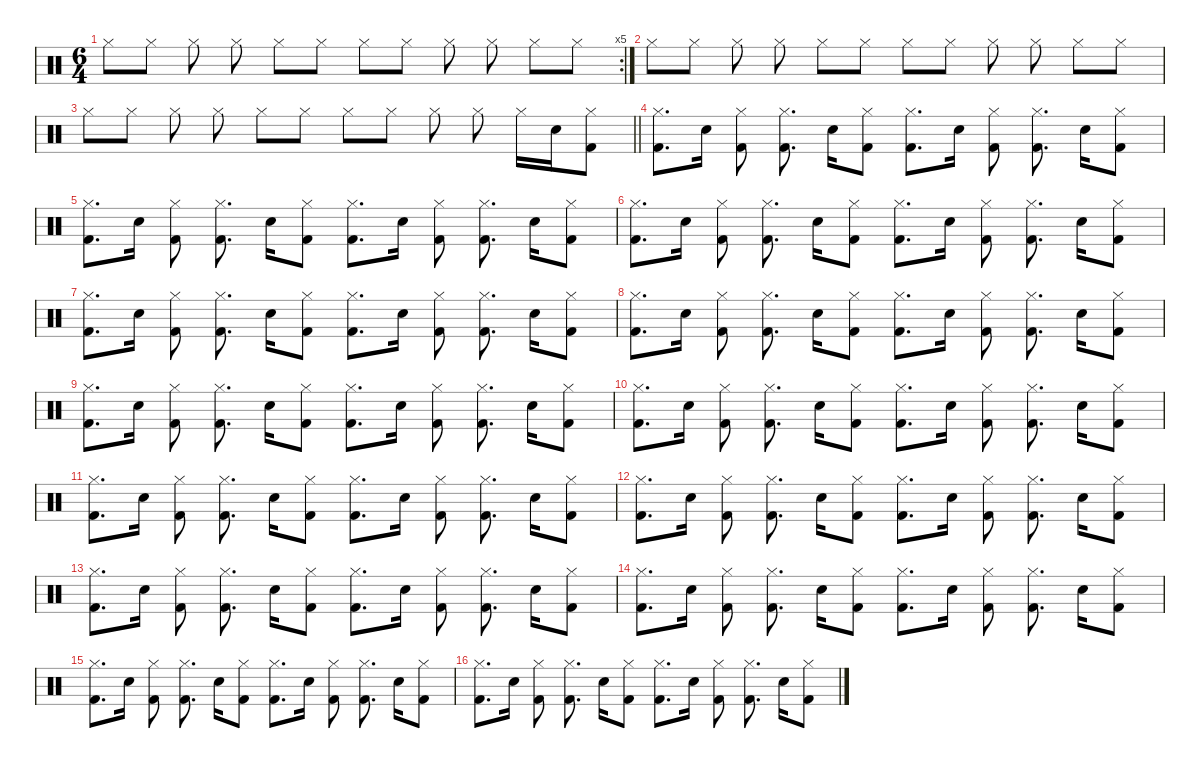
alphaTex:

\defaultSystemsLayout 4
\hideDynamics
\bracketExtendMode nobrackets
\singleTrackTrackNamePolicy hidden
\multiTrackTrackNamePolicy hidden
\firstSystemTrackNameMode fullname
\firstSystemTrackNameOrientation horizontal
\otherSystemsTrackNameOrientation horizontal
\track ("Percussion" "drm.") {instrument percussion}
\staff {score}
\articulation defaults
\rc 5
\ts (6 4)
\tempo (97 hide)
\clef neutral
\ks c "Hi-Hat (closed)".8{dy mf beam Down} "Hi-Hat (closed)".8{beam Down} "Hi-Hat (closed)".8{beam Down beam split} "Hi-Hat (closed)".8{beam Down} "Hi-Hat (closed)".8{beam Down} "Hi-Hat (closed)".8{beam Down} "Hi-Hat (closed)".8{beam Down} "Hi-Hat (closed)".8{beam Down} "Hi-Hat (closed)".8{beam Down beam split} "Hi-Hat (closed)".8{beam Down} "Hi-Hat (closed)".8{beam Down} "Hi-Hat (closed)".8{beam Down}
|
\tempo (98 hide)
"Hi-Hat (closed)".8{beam Down} "Hi-Hat (closed)".8{beam Down} "Hi-Hat (closed)".8{beam Down beam split} "Hi-Hat (closed)".8{beam Down} "Hi-Hat (closed)".8{beam Down} "Hi-Hat (closed)".8{beam Down} "Hi-Hat (closed)".8{beam Down} "Hi-Hat (closed)".8{beam Down} "Hi-Hat (closed)".8{beam Down beam split} "Hi-Hat (closed)".8{beam Down} "Hi-Hat (closed)".8{beam Down} "Hi-Hat (closed)".8{beam Down} |
\tempo (97 hide)
\barLineRight lightlight "Hi-Hat (closed)".8{beam Down} "Hi-Hat (closed)".8{beam Down} "Hi-Hat (closed)".8{beam Down beam split} "Hi-Hat (closed)".8{beam Down} "Hi-Hat (closed)".8{beam Down} "Hi-Hat (closed)".8{beam Down} "Hi-Hat (closed)".8{beam Down} "Hi-Hat (closed)".8{beam Down} "Hi-Hat (closed)".8{beam Down beam split} "Hi-Hat (closed)".8{beam Down} "Hi-Hat (closed)".16{beam Down} "Snare (hit) 2".16{dy ff beam Down}
("Hi-Hat (closed)" "Kick (hit) 2").8{dy mf beam Down} |
\tempo (98 hide)
("Hi-Hat (closed)" "Kick (hit) 2").8{d beam Down} "Snare (hit) 2".16{dy f beam Down} ("Hi-Hat (closed)" "Kick (hit) 2").8{dy mf beam Down beam split} ("Hi-Hat (closed)" "Kick (hit) 2").8{d beam Down} "Snare (hit) 2".16{dy f beam Down} ("Hi-Hat (closed)" "Kick (hit) 2").8{dy mf beam Down} ("Hi-Hat (closed)" "Kick (hit) 2").8{d beam Down} "Snare (hit) 2".16{dy f beam Down} ("Hi-Hat (closed)" "Kick (hit) 2").8{dy mf beam Down beam split} ("Hi-Hat (closed)" "Kick (hit) 2").8{d beam Down} "Snare (hit) 2".16{dy f beam Down} ("Hi-Hat (closed)" "Kick (hit) 2").8{dy mf beam Down} |
("Hi-Hat (closed)" "Kick (hit) 2").8{d beam Down} "Snare (hit) 2".16{dy f beam Down} ("Hi-Hat (closed)" "Kick (hit) 2").8{dy mf beam Down beam split} ("Hi-Hat (closed)" "Kick (hit) 2").8{d beam Down} "Snare (hit) 2".16{dy f beam Down} ("Hi-Hat (closed)" "Kick (hit) 2").8{dy mf beam Down} ("Hi-Hat (closed)" "Kick (hit) 2").8{d beam Down} "Snare (hit) 2".16{dy f beam Down} ("Hi-Hat (closed)" "Kick (hit) 2").8{dy mf beam Down beam split} ("Hi-Hat (closed)" "Kick (hit) 2").8{d beam Down} "Snare (hit) 2".16{dy f beam Down} ("Hi-Hat (closed)" "Kick (hit) 2").8{dy mf beam Down} |
("Hi-Hat (closed)" "Kick (hit) 2").8{d beam Down} "Snare (hit) 2".16{dy f beam Down} ("Hi-Hat (closed)" "Kick (hit) 2").8{dy mf beam Down beam split} ("Hi-Hat (closed)" "Kick (hit) 2").8{d beam Down} "Snare (hit) 2".16{dy f beam Down} ("Hi-Hat (closed)" "Kick (hit) 2").8{dy mf beam Down} ("Hi-Hat (closed)" "Kick (hit) 2").8{d beam Down} "Snare (hit) 2".16{dy f beam Down} ("Hi-Hat (closed)" "Kick (hit) 2").8{dy mf beam Down beam split} ("Hi-Hat (closed)" "Kick (hit) 2").8{d beam Down} "Snare (hit) 2".16{dy f beam Down} ("Hi-Hat (closed)" "Kick (hit) 2").8{dy mf beam Down} |
("Hi-Hat (closed)" "Kick (hit) 2").8{d beam Down} "Snare (hit) 2".16{dy f beam Down} ("Hi-Hat (closed)" "Kick (hit) 2").8{dy mf beam Down beam split} ("Hi-Hat (closed)" "Kick (hit) 2").8{d beam Down} "Snare (hit) 2".16{dy f beam Down} ("Hi-Hat (closed)" "Kick (hit) 2").8{dy mf beam Down} ("Hi-Hat (closed)" "Kick (hit) 2").8{d beam Down} "Snare (hit) 2".16{dy f beam Down} ("Hi-Hat (closed)" "Kick (hit) 2").8{dy mf beam Down beam split} ("Hi-Hat (closed)" "Kick (hit) 2").8{d beam Down} "Snare (hit) 2".16{dy f beam Down} ("Hi-Hat (closed)" "Kick (hit) 2").8{dy mf beam Down} |
\tempo (97 hide)
("Hi-Hat (closed)" "Kick (hit) 2").8{d beam Down} "Snare (hit) 2".16{dy f beam Down} ("Hi-Hat (closed)" "Kick (hit) 2").8{dy mf beam Down beam split} ("Hi-Hat (closed)" "Kick (hit) 2").8{d beam Down} "Snare (hit) 2".16{dy f beam Down} ("Hi-Hat (closed)" "Kick (hit) 2").8{dy mf beam Down} ("Hi-Hat (closed)" "Kick (hit) 2").8{d beam Down} "Snare (hit) 2".16{dy f beam Down} ("Hi-Hat (closed)" "Kick (hit) 2").8{dy mf beam Down beam split} ("Hi-Hat (closed)" "Kick (hit) 2").8{d beam Down} "Snare (hit) 2".16{dy f beam Down} ("Hi-Hat (closed)" "Kick (hit) 2").8{dy mf beam Down} |
("Hi-Hat (closed)" "Kick (hit) 2").8{d beam Down} "Snare (hit) 2".16{dy f beam Down} ("Hi-Hat (closed)" "Kick (hit) 2").8{dy mf beam Down beam split} ("Hi-Hat (closed)" "Kick (hit) 2").8{d beam Down} "Snare (hit) 2".16{dy f beam Down} ("Hi-Hat (closed)" "Kick (hit) 2").8{dy mf beam Down} ("Hi-Hat (closed)" "Kick (hit) 2").8{d beam Down} "Snare (hit) 2".16{dy f beam Down} ("Hi-Hat (closed)" "Kick (hit) 2").8{dy mf beam Down beam split} ("Hi-Hat (closed)" "Kick (hit) 2").8{d beam Down} "Snare (hit) 2".16{dy f beam Down} ("Hi-Hat (closed)" "Kick (hit) 2").8{dy mf beam Down} |
("Hi-Hat (closed)" "Kick (hit) 2").8{d beam Down} "Snare (hit) 2".16{dy f beam Down} ("Hi-Hat (closed)" "Kick (hit) 2").8{dy mf beam Down beam split} ("Hi-Hat (closed)" "Kick (hit) 2").8{d beam Down} "Snare (hit) 2".16{dy f beam Down} ("Hi-Hat (closed)" "Kick (hit) 2").8{dy mf beam Down} ("Hi-Hat (closed)" "Kick (hit) 2").8{d beam Down} "Snare (hit) 2".16{dy f beam Down} ("Hi-Hat (closed)" "Kick (hit) 2").8{dy mf beam Down beam split} ("Hi-Hat (closed)" "Kick (hit) 2").8{d beam Down} "Snare (hit) 2".16{dy f beam Down} ("Hi-Hat (closed)" "Kick (hit) 2").8{dy mf beam Down} |
("Hi-Hat (closed)" "Kick (hit) 2").8{d beam Down} "Snare (hit) 2".16{dy f beam Down} ("Hi-Hat (closed)" "Kick (hit) 2").8{dy mf beam Down beam split} ("Hi-Hat (closed)" "Kick (hit) 2").8{d beam Down} "Snare (hit) 2".16{dy f beam Down} ("Hi-Hat (closed)" "Kick (hit) 2").8{dy mf beam Down} ("Hi-Hat (closed)" "Kick (hit) 2").8{d beam Down} "Snare (hit) 2".16{dy f beam Down} ("Hi-Hat (closed)" "Kick (hit) 2").8{dy mf beam Down beam split} ("Hi-Hat (closed)" "Kick (hit) 2").8{d beam Down} "Snare (hit) 2".16{dy f beam Down} ("Hi-Hat (closed)" "Kick (hit) 2").8{dy mf beam Down} |
\tempo (98 hide)
("Hi-Hat (closed)" "Kick (hit) 2").8{d beam Down} "Snare (hit) 2".16{dy f beam Down} ("Hi-Hat (closed)" "Kick (hit) 2").8{dy mf beam Down beam split} ("Hi-Hat (closed)" "Kick (hit) 2").8{d beam Down} "Snare (hit) 2".16{dy f beam Down} ("Hi-Hat (closed)" "Kick (hit) 2").8{dy mf beam Down} ("Hi-Hat (closed)" "Kick (hit) 2").8{d beam Down} "Snare (hit) 2".16{dy f beam Down} ("Hi-Hat (closed)" "Kick (hit) 2").8{dy mf beam Down beam split} ("Hi-Hat (closed)" "Kick (hit) 2").8{d beam Down} "Snare (hit) 2".16{dy f beam Down} ("Hi-Hat (closed)" "Kick (hit) 2").8{dy mf beam Down} |
("Hi-Hat (closed)" "Kick (hit) 2").8{d beam Down} "Snare (hit) 2".16{dy f beam Down} ("Hi-Hat (closed)" "Kick (hit) 2").8{dy mf beam Down beam split} ("Hi-Hat (closed)" "Kick (hit) 2").8{d beam Down} "Snare (hit) 2".16{dy f beam Down} ("Hi-Hat (closed)" "Kick (hit) 2").8{dy mf beam Down} ("Hi-Hat (closed)" "Kick (hit) 2").8{d beam Down} "Snare (hit) 2".16{dy f beam Down} ("Hi-Hat (closed)" "Kick (hit) 2").8{dy mf beam Down beam split} ("Hi-Hat (closed)" "Kick (hit) 2").8{d beam Down} "Snare (hit) 2".16{dy f beam Down} ("Hi-Hat (closed)" "Kick (hit) 2").8{dy mf beam Down} |
("Hi-Hat (closed)" "Kick (hit) 2").8{d beam Down} "Snare (hit) 2".16{dy f beam Down} ("Hi-Hat (closed)" "Kick (hit) 2").8{dy mf beam Down beam split} ("Hi-Hat (closed)" "Kick (hit) 2").8{d beam Down} "Snare (hit) 2".16{dy f beam Down} ("Hi-Hat (closed)" "Kick (hit) 2").8{dy mf beam Down} ("Hi-Hat (closed)" "Kick (hit) 2").8{d beam Down} "Snare (hit) 2".16{dy f beam Down} ("Hi-Hat (closed)" "Kick (hit) 2").8{dy mf beam Down beam split} ("Hi-Hat (closed)" "Kick (hit) 2").8{d beam Down} "Snare (hit) 2".16{dy f beam Down} ("Hi-Hat (closed)" "Kick (hit) 2").8{dy mf beam Down} |
("Hi-Hat (closed)" "Kick (hit) 2").8{d beam Down} "Snare (hit) 2".16{dy f beam Down} ("Hi-Hat (closed)" "Kick (hit) 2").8{dy mf beam Down beam split} ("Hi-Hat (closed)" "Kick (hit) 2").8{d beam Down} "Snare (hit) 2".16{dy f beam Down} ("Hi-Hat (closed)" "Kick (hit) 2").8{dy mf beam Down} ("Hi-Hat (closed)" "Kick (hit) 2").8{d beam Down} "Snare (hit) 2".16{dy f beam Down} ("Hi-Hat (closed)" "Kick (hit) 2").8{dy mf beam Down beam split} ("Hi-Hat (closed)" "Kick (hit) 2").8{d beam Down} "Snare (hit) 2".16{dy f beam Down} ("Hi-Hat (closed)" "Kick (hit) 2").8{dy mf beam Down} |
\tempo (97 hide)
("Hi-Hat (closed)" "Kick (hit) 2").8{d beam Down} "Snare (hit) 2".16{dy f beam Down} ("Hi-Hat (closed)" "Kick (hit) 2").8{dy mf beam Down beam split} ("Hi-Hat (closed)" "Kick (hit) 2").8{d beam Down} "Snare (hit) 2".16{dy f beam Down} ("Hi-Hat (closed)" "Kick (hit) 2").8{dy mf beam Down} ("Hi-Hat (closed)" "Kick (hit) 2").8{d beam Down} "Snare (hit) 2".16{dy f beam Down} ("Hi-Hat (closed)" "Kick (hit) 2").8{dy mf beam Down beam split} ("Hi-Hat (closed)" "Kick (hit) 2").8{d beam Down} "Snare (hit) 2".16{dy f beam Down} ("Hi-Hat (closed)" "Kick (hit) 2").8{dy mf beam Down}
